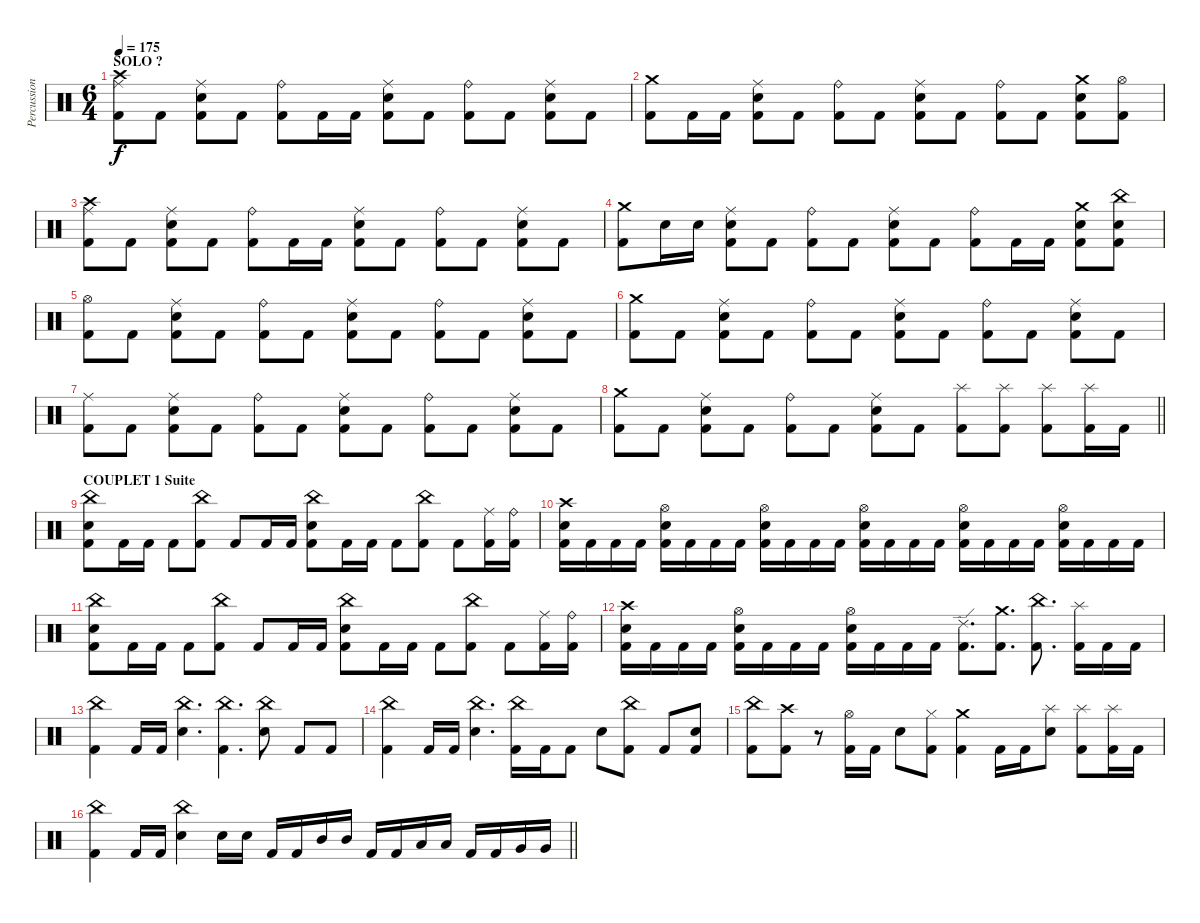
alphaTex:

\track ("Percussions" "Percussion") {instrument percussion}
\staff {score}
\articulation defaults
\ts (6 4)
\section ("" "SOLO ?")
\tempo 175
\clef neutral
\ks c
("Ride (middle)" "Crash high (hit)" "Kick (hit) 2").8{dy f} "Kick (hit) 2".8 ("Ride (middle)" "Electric Snare (hit)" "Kick (hit) 2").8 "Kick (hit) 2".8 ("Ride (bell)" "Kick (hit) 2").8 "Kick (hit) 2".16 "Kick (hit) 2".16 ("Ride (middle)" "Electric Snare (hit)" "Kick (hit) 2").8 "Kick (hit) 2".8 ("Ride (bell)" "Kick (hit) 2").8 "Kick (hit) 2".8 ("Ride (middle)" "Electric Snare (hit)" "Kick (hit) 2").8 "Kick (hit) 2".8 |
("Crash medium (hit)" "Kick (hit) 2").8 "Kick (hit) 2".16 "Kick (hit) 2".16 ("Ride (middle)" "Electric Snare (hit)" "Kick (hit) 2").8 "Kick (hit) 2".8 ("Ride (bell)" "Kick (hit) 2").8 "Kick (hit) 2".8 ("Ride (middle)" "Electric Snare (hit)" "Kick (hit) 2").8 "Kick (hit) 2".8 ("Ride (bell)" "Kick (hit) 2").8 "Kick (hit) 2".8 ("Crash medium (hit)" "Electric Snare (hit)" "Kick (hit) 2").8 ("Hi-Hat (open)" "Kick (hit) 2").8 |
("Ride (middle)" "Crash high (hit)" "Kick (hit) 2").8 "Kick (hit) 2".8 ("Ride (middle)" "Electric Snare (hit)" "Kick (hit) 2").8 "Kick (hit) 2".8 ("Ride (bell)" "Kick (hit) 2").8 "Kick (hit) 2".16 "Kick (hit) 2".16 ("Ride (middle)" "Electric Snare (hit)" "Kick (hit) 2").8 "Kick (hit) 2".8 ("Ride (bell)" "Kick (hit) 2").8 "Kick (hit) 2".8 ("Ride (middle)" "Electric Snare (hit)" "Kick (hit) 2").8 "Kick (hit) 2".8 |
("Crash medium (hit)" "Kick (hit) 2").8 "Electric Snare (hit)".16 "Electric Snare (hit)".16 ("Ride (middle)" "Electric Snare (hit)" "Kick (hit) 2").8 "Kick (hit) 2".8 ("Ride (bell)" "Kick (hit) 2").8 "Kick (hit) 2".8 ("Ride (middle)" "Electric Snare (hit)" "Kick (hit) 2").8 "Kick (hit) 2".8 ("Ride (bell)" "Kick (hit) 2").8 "Kick (hit) 2".16 "Kick (hit) 2".16 ("Crash medium (hit)" "Electric Snare (hit)" "Kick (hit) 2").8 ("China (hit)" "Electric Snare (hit)" "Kick (hit) 2").8 |
("Hi-Hat (open)" "Kick (hit) 2").8 "Kick (hit) 2".8 ("Ride (middle)" "Electric Snare (hit)" "Kick (hit) 2").8 "Kick (hit) 2".8 ("Ride (bell)" "Kick (hit) 2").8 "Kick (hit) 2".8 ("Ride (middle)" "Electric Snare (hit)" "Kick (hit) 2").8 "Kick (hit) 2".8 ("Ride (bell)" "Kick (hit) 2").8 "Kick (hit) 2".8 ("Ride (middle)" "Electric Snare (hit)" "Kick (hit) 2").8 "Kick (hit) 2".8 |
("Crash medium (hit)" "Kick (hit) 2").8 "Kick (hit) 2".8 ("Ride (middle)" "Electric Snare (hit)" "Kick (hit) 2").8 "Kick (hit) 2".8 ("Ride (bell)" "Kick (hit) 2").8 "Kick (hit) 2".8 ("Ride (middle)" "Electric Snare (hit)" "Kick (hit) 2").8 "Kick (hit) 2".8 ("Ride (bell)" "Kick (hit) 2").8 "Kick (hit) 2".8 ("Ride (middle)" "Electric Snare (hit)" "Kick (hit) 2").8 "Kick (hit) 2".8 |
("Ride (middle)" "Kick (hit) 2").8 "Kick (hit) 2".8 ("Ride (middle)" "Electric Snare (hit)" "Kick (hit) 2").8 "Kick (hit) 2".8 ("Ride (bell)" "Kick (hit) 2").8 "Kick (hit) 2".8 ("Ride (middle)" "Electric Snare (hit)" "Kick (hit) 2").8 "Kick (hit) 2".8 ("Ride (bell)" "Kick (hit) 2").8 "Kick (hit) 2".8 ("Ride (middle)" "Electric Snare (hit)" "Kick (hit) 2").8 "Kick (hit) 2".8 |
\barLineRight lightlight
("Crash medium (hit)" "Kick (hit) 2").8 "Kick (hit) 2".8 ("Ride (middle)" "Electric Snare (hit)" "Kick (hit) 2").8 "Kick (hit) 2".8 ("Ride (bell)" "Kick (hit) 2").8 "Kick (hit) 2".8 ("Ride (middle)" "Electric Snare (hit)" "Kick (hit) 2").8 "Kick (hit) 2".8 ("Splash (hit)" "Kick (hit) 2").8 ("Splash (hit)" "Kick (hit) 2").8 ("Splash (hit)" "Kick (hit) 2").8 ("Splash (hit)" "Kick (hit) 2").16 "Kick (hit) 2".16 |
\section ("" "COUPLET 1 Suite")
("China (hit)" "Electric Snare (hit)" "Kick (hit) 2").8 "Kick (hit) 2".16 "Kick (hit) 2".16 "Kick (hit) 2".8 ("China (hit)" "Kick (hit) 2").8 "Kick (hit) 2".8 "Kick (hit) 2".16 "Kick (hit) 2".16 ("China (hit)" "Electric Snare (hit)" "Kick (hit) 2").8 "Kick (hit) 2".16 "Kick (hit) 2".16 "Kick (hit) 2".8 ("China (hit)" "Kick (hit) 2").8 "Kick (hit) 2".8 ("Ride (middle)" "Kick (hit) 2").16 ("Ride (bell)" "Kick (hit) 2").16 |
("Crash high (hit)" "Electric Snare (hit)" "Kick (hit) 2").16 "Kick (hit) 2".16 "Kick (hit) 2".16 "Kick (hit) 2".16 ("Hi-Hat (open)" "Electric Snare (hit)" "Kick (hit) 2").16 "Kick (hit) 2".16 "Kick (hit) 2".16 "Kick (hit) 2".16 ("Hi-Hat (open)" "Electric Snare (hit)" "Kick (hit) 2").16 "Kick (hit) 2".16 "Kick (hit) 2".16 "Kick (hit) 2".16 ("Hi-Hat (open)" "Electric Snare (hit)" "Kick (hit) 2").16 "Kick (hit) 2".16 "Kick (hit) 2".16 "Kick (hit) 2".16 ("Hi-Hat (open)" "Electric Snare (hit)" "Kick (hit) 2").16 "Kick (hit) 2".16 "Kick (hit) 2".16 "Kick (hit) 2".16 ("Hi-Hat (open)" "Electric Snare (hit)" "Kick (hit) 2").16 "Kick (hit) 2".16 "Kick (hit) 2".16 "Kick (hit) 2".16 |
("China (hit)" "Electric Snare (hit)" "Kick (hit) 2").8 "Kick (hit) 2".16 "Kick (hit) 2".16 "Kick (hit) 2".8 ("China (hit)" "Kick (hit) 2").8 "Kick (hit) 2".8 "Kick (hit) 2".16 "Kick (hit) 2".16 ("China (hit)" "Electric Snare (hit)" "Kick (hit) 2").8 "Kick (hit) 2".16 "Kick (hit) 2".16 "Kick (hit) 2".8 ("China (hit)" "Kick (hit) 2").8 "Kick (hit) 2".8 ("Ride (middle)" "Kick (hit) 2").16 ("Ride (bell)" "Kick (hit) 2").16 |
("Crash high (hit)" "Electric Snare (hit)" "Kick (hit) 2").16 "Kick (hit) 2".16 "Kick (hit) 2".16 "Kick (hit) 2".16 ("Hi-Hat (open)" "Electric Snare (hit)" "Kick (hit) 2").16 "Kick (hit) 2".16 "Kick (hit) 2".16 "Kick (hit) 2".16 ("Hi-Hat (open)" "Electric Snare (hit)" "Kick (hit) 2").16 "Kick (hit) 2".16 "Kick (hit) 2".16 "Kick (hit) 2".16 ("Ride (edge) 2" "Kick (hit) 2").8{d} ("Crash medium (hit)" "Kick (hit) 2").8{d} ("China (hit)" "Kick (hit) 2").8{d} ("Splash (hit)" "Kick (hit) 2").16 "Kick (hit) 2".16 "Kick (hit) 2".16 |
("China (hit)" "Kick (hit) 2").4 "Kick (hit) 2".16 "Kick (hit) 2".16 ("China (hit)" "Electric Snare (hit)").4{d} ("China (hit)" "Kick (hit) 2").4{d} ("China (hit)" "Electric Snare (hit)").8 "Kick (hit) 2".8 "Kick (hit) 2".8 |
("China (hit)" "Kick (hit) 2").4 "Kick (hit) 2".16 "Kick (hit) 2".16 ("China (hit)" "Electric Snare (hit)").4{d} ("China (hit)" "Kick (hit) 2").16 "Kick (hit) 2".16 "Kick (hit) 2".8 "Electric Snare (hit)".8 ("China (hit)" "Kick (hit) 2").8 "Kick (hit) 2".8 ("Electric Snare (hit)" "Kick (hit) 2").8 |
("China (hit)" "Kick (hit) 2").8 ("Crash high (hit)" "Kick (hit) 2").8 r.8 ("Hi-Hat (open)" "Kick (hit) 2").16 "Kick (hit) 2".16 "Electric Snare (hit)".8 ("Hi-Hat (closed)" "Kick (hit) 2").8 ("Crash medium (hit)" "Kick (hit) 2").4 "Kick (hit) 2".16 "Kick (hit) 2".16 ("Splash (hit)" "Electric Snare (hit)").8 ("Splash (hit)" "Kick (hit) 2").8 ("Splash (hit)" "Kick (hit) 2").16 "Kick (hit) 2".16 |
\barLineRight lightlight
("China (hit)" "Kick (hit) 2").4 "Kick (hit) 2".16 "Kick (hit) 2".16 ("China (hit)" "Electric Snare (hit)").4 "Electric Snare (hit)".16 "Electric Snare (hit)".16 "Kick (hit) 2".16 "Kick (hit) 2".16 "Mid Tom (hit)".16 "Mid Tom (hit)".16 "Kick (hit) 2".16 "Kick (hit) 2".16 "Low Tom (hit)".16 "Low Tom (hit)".16 "Kick (hit) 2".16 "Kick (hit) 2".16 "Very Low Tom (hit)".16 "Very Low Tom (hit)".16
